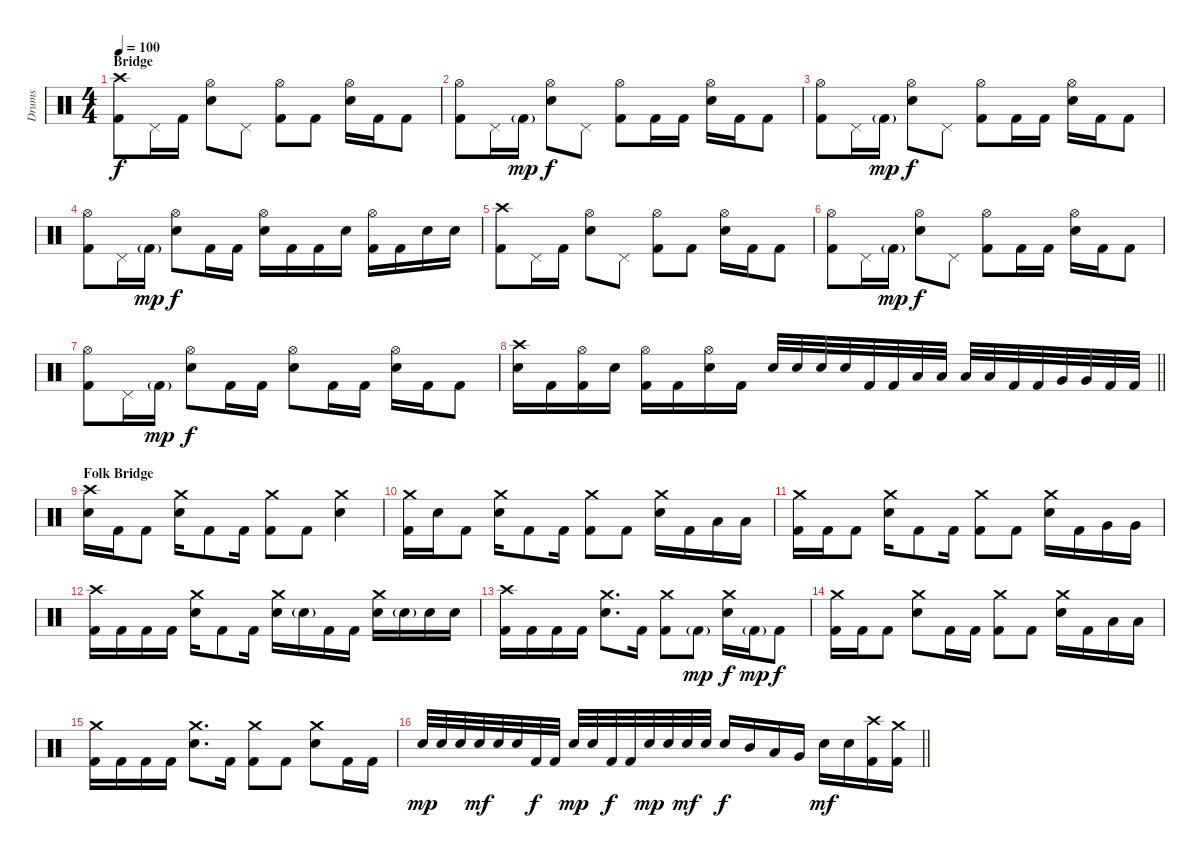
\track ("Drums" "Drums") {instrument percussion}
\staff {score}
\articulation defaults
\ts (4 4)
\section ("" "Bridge")
\tempo 100
\clef neutral
\ks c
("Crash high (hit)" "Kick (hit) 2").8{dy f} "Pedal Hi-Hat (hit)".16 "Kick (hit) 2".16 ("Hi-Hat (open)" "Electric Snare (hit)").8 "Pedal Hi-Hat (hit)".8 ("Hi-Hat (open)" "Kick (hit) 2").8 "Kick (hit) 2".8 ("Hi-Hat (open)" "Electric Snare (hit)").16 "Kick (hit) 2".16 "Kick (hit) 2".8 |
("Hi-Hat (open)" "Kick (hit) 2").8 "Pedal Hi-Hat (hit)".16 "Kick (hit) 2"{g}.16{dy mp} ("Hi-Hat (open)" "Electric Snare (hit)").8{dy f} "Pedal Hi-Hat (hit)".8 ("Hi-Hat (open)" "Kick (hit) 2").8 "Kick (hit) 2".16 "Kick (hit) 2".16 ("Hi-Hat (open)" "Electric Snare (hit)").16 "Kick (hit) 2".16 "Kick (hit) 2".8 |
("Hi-Hat (open)" "Kick (hit) 2").8 "Pedal Hi-Hat (hit)".16 "Kick (hit) 2"{g}.16{dy mp} ("Hi-Hat (open)" "Electric Snare (hit)").8{dy f} "Pedal Hi-Hat (hit)".8 ("Hi-Hat (open)" "Kick (hit) 2").8 "Kick (hit) 2".16 "Kick (hit) 2".16 ("Hi-Hat (open)" "Electric Snare (hit)").16 "Kick (hit) 2".16 "Kick (hit) 2".8 |
("Hi-Hat (open)" "Kick (hit) 2").8 "Pedal Hi-Hat (hit)".16 "Kick (hit) 2"{g}.16{dy mp} ("Hi-Hat (open)" "Electric Snare (hit)").8{dy f} "Kick (hit) 2".16 "Kick (hit) 2".16 ("Hi-Hat (open)" "Electric Snare (hit)").16 "Kick (hit) 2".16 "Kick (hit) 2".16 "Electric Snare (hit)".16 ("Hi-Hat (open)" "Kick (hit) 2").16 "Kick (hit) 2".16 "Electric Snare (hit)".16 "Electric Snare (hit)".16 |
("Crash high (hit)" "Kick (hit) 2").8 "Pedal Hi-Hat (hit)".16 "Kick (hit) 2".16 ("Hi-Hat (open)" "Electric Snare (hit)").8 "Pedal Hi-Hat (hit)".8 ("Hi-Hat (open)" "Kick (hit) 2").8 "Kick (hit) 2".8 ("Hi-Hat (open)" "Electric Snare (hit)").16 "Kick (hit) 2".16 "Kick (hit) 2".8 |
("Hi-Hat (open)" "Kick (hit) 2").8 "Pedal Hi-Hat (hit)".16 "Kick (hit) 2"{g}.16{dy mp} ("Hi-Hat (open)" "Electric Snare (hit)").8{dy f} "Pedal Hi-Hat (hit)".8 ("Hi-Hat (open)" "Kick (hit) 2").8 "Kick (hit) 2".16 "Kick (hit) 2".16 ("Hi-Hat (open)" "Electric Snare (hit)").16 "Kick (hit) 2".16 "Kick (hit) 2".8 |
("Hi-Hat (open)" "Kick (hit) 2").8 "Pedal Hi-Hat (hit)".16 "Kick (hit) 2"{g}.16{dy mp} ("Hi-Hat (open)" "Electric Snare (hit)").8{dy f} "Kick (hit) 2".16 "Kick (hit) 2".16 ("Hi-Hat (open)" "Electric Snare (hit)").8 "Kick (hit) 2".16 "Kick (hit) 2".16 ("Hi-Hat (open)" "Electric Snare (hit)").16 "Kick (hit) 2".16 "Kick (hit) 2".8 |
\barLineRight lightlight
("Crash high (hit)" "Electric Snare (hit)").16 "Kick (hit) 2".16 ("Hi-Hat (open)" "Kick (hit) 2").16 "Electric Snare (hit)".16 ("Hi-Hat (open)" "Kick (hit) 2").16 "Kick (hit) 2".16 ("Hi-Hat (open)" "Electric Snare (hit)").16 "Kick (hit) 2".16 "Electric Snare (hit)".32 "Electric Snare (hit)".32 "Electric Snare (hit)".32 "Electric Snare (hit)".32 "Kick (hit) 2".32 "Kick (hit) 2".32 "Low Tom (hit)".32 "Low Tom (hit)".32 "Low Tom (hit)".32 "Low Tom (hit)".32 "Kick (hit) 2".32 "Kick (hit) 2".32 "Very Low Tom (hit)".32 "Very Low Tom (hit)".32 "Kick (hit) 2".32 "Kick (hit) 2".32 |
\section ("" "Folk Bridge")
("Crash high (hit)" "Electric Snare (hit)").16 "Kick (hit) 2".16 "Kick (hit) 2".8 ("Crash medium (hit)" "Electric Snare (hit)").16 "Kick (hit) 2".8 "Kick (hit) 2".16 ("Crash medium (hit)" "Kick (hit) 2").8 "Kick (hit) 2".8 ("Crash medium (hit)" "Electric Snare (hit)").4 |
("Crash medium (hit)" "Kick (hit) 2").16 "Electric Snare (hit)".16 "Kick (hit) 2".8 ("Crash medium (hit)" "Electric Snare (hit)").16 "Kick (hit) 2".8 "Kick (hit) 2".16 ("Crash medium (hit)" "Kick (hit) 2").8 "Kick (hit) 2".8 ("Crash medium (hit)" "Electric Snare (hit)").16 "Kick (hit) 2".16 "Low Floor Tom (hit)".16 "Low Floor Tom (hit)".16 |
("Crash medium (hit)" "Kick (hit) 2").16 "Kick (hit) 2".16 "Kick (hit) 2".8 ("Crash medium (hit)" "Electric Snare (hit)").16 "Kick (hit) 2".8 "Kick (hit) 2".16 ("Crash medium (hit)" "Kick (hit) 2").8 "Kick (hit) 2".8 ("Crash medium (hit)" "Electric Snare (hit)").16 "Kick (hit) 2".16 "Very Low Tom (hit)".16 "Very Low Tom (hit)".16 |
("Crash high (hit)" "Kick (hit) 2").16 "Kick (hit) 2".16 "Kick (hit) 2".16 "Kick (hit) 2".16 ("Crash medium (hit)" "Electric Snare (hit)").16 "Kick (hit) 2".8 "Kick (hit) 2".16 ("Crash medium (hit)" "Electric Snare (hit)").16 "Electric Snare (hit)"{g}.16 "Kick (hit) 2".16 "Kick (hit) 2".16 ("Crash medium (hit)" "Electric Snare (hit)").16 "Electric Snare (hit)"{g}.16 "Electric Snare (hit)".16 "Electric Snare (hit)".16 |
("Crash high (hit)" "Kick (hit) 2").16 "Kick (hit) 2".16 "Kick (hit) 2".16 "Kick (hit) 2".16 ("Crash medium (hit)" "Electric Snare (hit)").8{d} "Kick (hit) 2".16 ("Crash medium (hit)" "Kick (hit) 2").8 "Kick (hit) 2"{g}.8{dy mp} ("Crash medium (hit)" "Electric Snare (hit)").16{dy f} "Kick (hit) 2"{g}.16{dy mp} "Kick (hit) 2".8{dy f} |
("Crash medium (hit)" "Kick (hit) 2").16 "Kick (hit) 2".16 "Kick (hit) 2".8 ("Crash medium (hit)" "Electric Snare (hit)").8 "Kick (hit) 2".16 "Kick (hit) 2".16 ("Crash medium (hit)" "Kick (hit) 2").8 "Kick (hit) 2".8 ("Crash medium (hit)" "Electric Snare (hit)").16 "Kick (hit) 2".16 "Low Floor Tom (hit)".16 "Low Floor Tom (hit)".16 |
("Crash medium (hit)" "Kick (hit) 2").16 "Kick (hit) 2".16 "Kick (hit) 2".16 "Kick (hit) 2".16 ("Crash medium (hit)" "Electric Snare (hit)").8{d} "Kick (hit) 2".16 ("Crash medium (hit)" "Kick (hit) 2").8 "Kick (hit) 2".8 ("Crash medium (hit)" "Electric Snare (hit)").8 "Kick (hit) 2".16 "Kick (hit) 2".16 |
\barLineRight lightlight "Electric Snare (hit)".32{dy mp} "Electric Snare (hit)".32 "Electric Snare (hit)".32 "Electric Snare (hit)".32{dy mf} "Electric Snare (hit)".32 "Electric Snare (hit)".32 "Kick (hit) 2".32{dy f} "Kick (hit) 2".32 "Electric Snare (hit)".32{dy mp} "Electric Snare (hit)".32 "Kick (hit) 2".32{dy f} "Kick (hit) 2".32 "Electric Snare (hit)".32{dy mp} "Electric Snare (hit)".32 "Electric Snare (hit)".32{dy mf} "Electric Snare (hit)".32 "Electric Snare (hit)".16{dy f} "Mid Tom (hit)".16 "Low Tom (hit)".16 "Very Low Tom (hit)".16 "Electric Snare (hit)".16{dy mf} "Electric Snare (hit)".16
("Crash high (hit)" "Kick (hit) 2").16 ("Crash medium (hit)" "Kick (hit) 2").16
